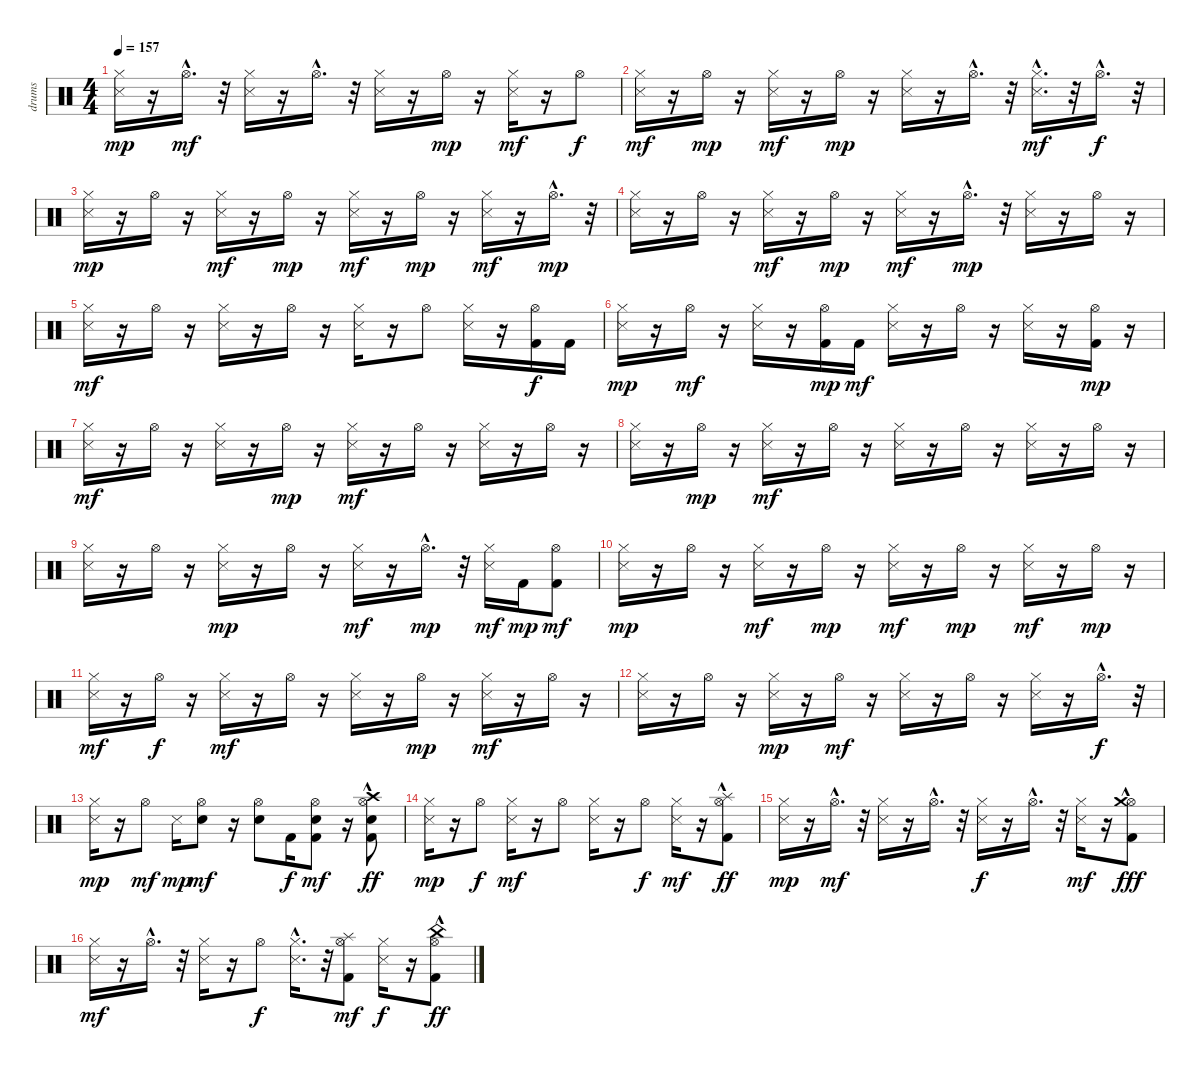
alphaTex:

\track ("drums   " "drums   ") {instrument percussion}
\staff {score}
\articulation defaults
\ts (4 4)
\tempo 157
\clef neutral
\ks c
("Snare (side stick) 3" "Hi-Hat (closed)").16{dy mp} r.16 "Hi-Hat (open)"{hac}.16{d dy mf} r.32 ("Snare (side stick) 3" "Hi-Hat (closed)").16 r.16 "Hi-Hat (open)"{hac}.16{d} r.32 ("Snare (side stick) 3" "Hi-Hat (closed)").16 r.16 "Hi-Hat (open)".16{dy mp} r.16 ("Snare (side stick) 3" "Hi-Hat (closed)").16{dy mf} r.16 "Hi-Hat (open)".8{dy f} |
("Snare (side stick) 3" "Hi-Hat (closed)").16{dy mf} r.16 "Hi-Hat (open)".16{dy mp} r.16 ("Snare (side stick) 3" "Hi-Hat (closed)").16{dy mf} r.16 "Hi-Hat (open)".16{dy mp} r.16 ("Snare (side stick) 3" "Hi-Hat (closed)").16 r.16 "Hi-Hat (open)"{hac}.16{d} r.32 ("Snare (side stick) 3" "Hi-Hat (closed)"{hac}).16{d dy mf} r.32 "Hi-Hat (open)"{hac}.16{d dy f} r.32 |
("Snare (side stick) 3" "Hi-Hat (closed)").16{dy mp} r.16 "Hi-Hat (open)".16 r.16 ("Snare (side stick) 3" "Hi-Hat (closed)").16{dy mf} r.16 "Hi-Hat (open)".16{dy mp} r.16 ("Snare (side stick) 3" "Hi-Hat (closed)").16{dy mf} r.16 "Hi-Hat (open)".16{dy mp} r.16 ("Snare (side stick) 3" "Hi-Hat (closed)").16{dy mf} r.16 "Hi-Hat (open)"{hac}.16{d dy mp} r.32 |
("Snare (side stick) 3" "Hi-Hat (closed)").16 r.16 "Hi-Hat (open)".16 r.16 ("Snare (side stick) 3" "Hi-Hat (closed)").16{dy mf} r.16 "Hi-Hat (open)".16{dy mp} r.16 ("Snare (side stick) 3" "Hi-Hat (closed)").16{dy mf} r.16 "Hi-Hat (open)"{hac}.16{d dy mp} r.32 ("Snare (side stick) 3" "Hi-Hat (closed)").16 r.16 "Hi-Hat (open)".16 r.16 |
("Snare (side stick) 3" "Hi-Hat (closed)").16{dy mf} r.16 "Hi-Hat (open)".16 r.16 ("Snare (side stick) 3" "Hi-Hat (closed)").16 r.16 "Hi-Hat (open)".16 r.16 ("Snare (side stick) 3" "Hi-Hat (closed)").16 r.16 "Hi-Hat (open)".8 ("Snare (side stick) 3" "Hi-Hat (closed)").16 r.16 ("Kick (hit) 2" "Hi-Hat (open)").16{dy f} "Kick (hit) 2".16 |
("Snare (side stick) 3" "Hi-Hat (closed)").16{dy mp} r.16 "Hi-Hat (open)".16{dy mf} r.16 ("Snare (side stick) 3" "Hi-Hat (closed)").16 r.16 ("Kick (hit) 2" "Hi-Hat (open)").16{dy mp} "Kick (hit) 2".16{dy mf} ("Snare (side stick) 3" "Hi-Hat (closed)").16 r.16 "Hi-Hat (open)".16 r.16 ("Snare (side stick) 3" "Hi-Hat (closed)").16 r.16 ("Kick (hit) 2" "Hi-Hat (open)").16{dy mp} r.16 |
("Snare (side stick) 3" "Hi-Hat (closed)").16{dy mf} r.16 "Hi-Hat (open)".16 r.16 ("Snare (side stick) 3" "Hi-Hat (closed)").16 r.16 "Hi-Hat (open)".16{dy mp} r.16 ("Snare (side stick) 3" "Hi-Hat (closed)").16{dy mf} r.16 "Hi-Hat (open)".16 r.16 ("Snare (side stick) 3" "Hi-Hat (closed)").16 r.16 "Hi-Hat (open)".16 r.16 |
("Snare (side stick) 3" "Hi-Hat (closed)").16 r.16 "Hi-Hat (open)".16{dy mp} r.16 ("Snare (side stick) 3" "Hi-Hat (closed)").16{dy mf} r.16 "Hi-Hat (open)".16 r.16 ("Snare (side stick) 3" "Hi-Hat (closed)").16 r.16 "Hi-Hat (open)".16 r.16 ("Snare (side stick) 3" "Hi-Hat (closed)").16 r.16 "Hi-Hat (open)".16 r.16 |
("Snare (side stick) 3" "Hi-Hat (closed)").16 r.16 "Hi-Hat (open)".16 r.16 ("Snare (side stick) 3" "Hi-Hat (closed)").16{dy mp} r.16 "Hi-Hat (open)".16 r.16 ("Snare (side stick) 3" "Hi-Hat (closed)").16{dy mf} r.16 "Hi-Hat (open)"{hac}.16{d dy mp} r.32 ("Snare (side stick) 3" "Hi-Hat (closed)").16{dy mf} "Kick (hit) 2".16{dy mp} ("Kick (hit) 2" "Hi-Hat (open)").8{dy mf} |
("Snare (side stick) 3" "Hi-Hat (closed)").16{dy mp} r.16 "Hi-Hat (open)".16 r.16 ("Snare (side stick) 3" "Hi-Hat (closed)").16{dy mf} r.16 "Hi-Hat (open)".16{dy mp} r.16 ("Snare (side stick) 3" "Hi-Hat (closed)").16{dy mf} r.16 "Hi-Hat (open)".16{dy mp} r.16 ("Snare (side stick) 3" "Hi-Hat (closed)").16{dy mf} r.16 "Hi-Hat (open)".16{dy mp} r.16 |
("Snare (side stick) 3" "Hi-Hat (closed)").16{dy mf} r.16 "Hi-Hat (open)".16{dy f} r.16 ("Snare (side stick) 3" "Hi-Hat (closed)").16{dy mf} r.16 "Hi-Hat (open)".16 r.16 ("Snare (side stick) 3" "Hi-Hat (closed)").16 r.16 "Hi-Hat (open)".16{dy mp} r.16 ("Snare (side stick) 3" "Hi-Hat (closed)").16{dy mf} r.16 "Hi-Hat (open)".16 r.16 |
("Snare (side stick) 3" "Hi-Hat (closed)").16 r.16 "Hi-Hat (open)".16 r.16 ("Snare (side stick) 3" "Hi-Hat (closed)").16{dy mp} r.16 "Hi-Hat (open)".16{dy mf} r.16 ("Snare (side stick) 3" "Hi-Hat (closed)").16 r.16 "Hi-Hat (open)".16 r.16 ("Snare (side stick) 3" "Hi-Hat (closed)").16 r.16 "Hi-Hat (open)"{hac}.16{d dy f} r.32 |
("Snare (side stick) 3" "Hi-Hat (closed)").16{dy mp} r.16 "Hi-Hat (open)".8{dy mf} "Snare (side stick) 3".16{dy mp} ("Snare (hit) 2" "Hi-Hat (open)").8{dy mf} r.16 ("Snare (hit) 2" "Hi-Hat (open)").8 "Kick (hit) 2".16{dy f} ("Kick (hit) 2" "Snare (hit) 2" "Hi-Hat (open)").8{dy mf} r.16 ("Kick (hit) 2"{hac} "Snare (hit) 2" "Hi-Hat (open)" "Crash high (hit)").8{dy ff} |
("Snare (side stick) 3" "Hi-Hat (closed)").16{dy mp} r.16 "Hi-Hat (open)".8{dy f} ("Snare (side stick) 3" "Hi-Hat (closed)").16{dy mf} r.16 "Hi-Hat (open)".8 ("Snare (side stick) 3" "Hi-Hat (closed)").16 r.16 "Hi-Hat (open)".8{dy f} ("Snare (side stick) 3" "Hi-Hat (closed)").16{dy mf} r.16 ("Kick (hit) 2"{hac} "Hi-Hat (open)" "Splash (hit)"{hac}).8{dy ff} |
("Snare (side stick) 3" "Hi-Hat (closed)").16{dy mp} r.16 "Hi-Hat (open)"{hac}.16{d dy mf} r.32 ("Snare (side stick) 3" "Hi-Hat (closed)").16 r.16 "Hi-Hat (open)"{hac}.16{d} r.32 ("Snare (side stick) 3" "Hi-Hat (closed)").16{dy f} r.16 "Hi-Hat (open)"{hac}.16{d} r.32 ("Snare (side stick) 3" "Hi-Hat (closed)").16{dy mf} r.16 ("Kick (hit) 2"{hac} "Hi-Hat (open)"{hac} "Crash medium (hit)"{hac}).8{dy fff} |
("Snare (side stick) 3" "Hi-Hat (closed)").16{dy mf} r.16 "Hi-Hat (open)"{hac}.16{d} r.32 ("Snare (side stick) 3" "Hi-Hat (closed)").16 r.16 "Hi-Hat (open)".8{dy f} ("Snare (side stick) 3" "Hi-Hat (closed)"{hac}).16{d} r.32 ("Kick (hit) 2" "Hi-Hat (open)" "Splash (hit)").8{dy mf} ("Snare (side stick) 3" "Hi-Hat (closed)").16{dy f} r.16 ("Kick (hit) 2"{hac} "Hi-Hat (open)" "China (hit)"{hac}).8{dy ff}
